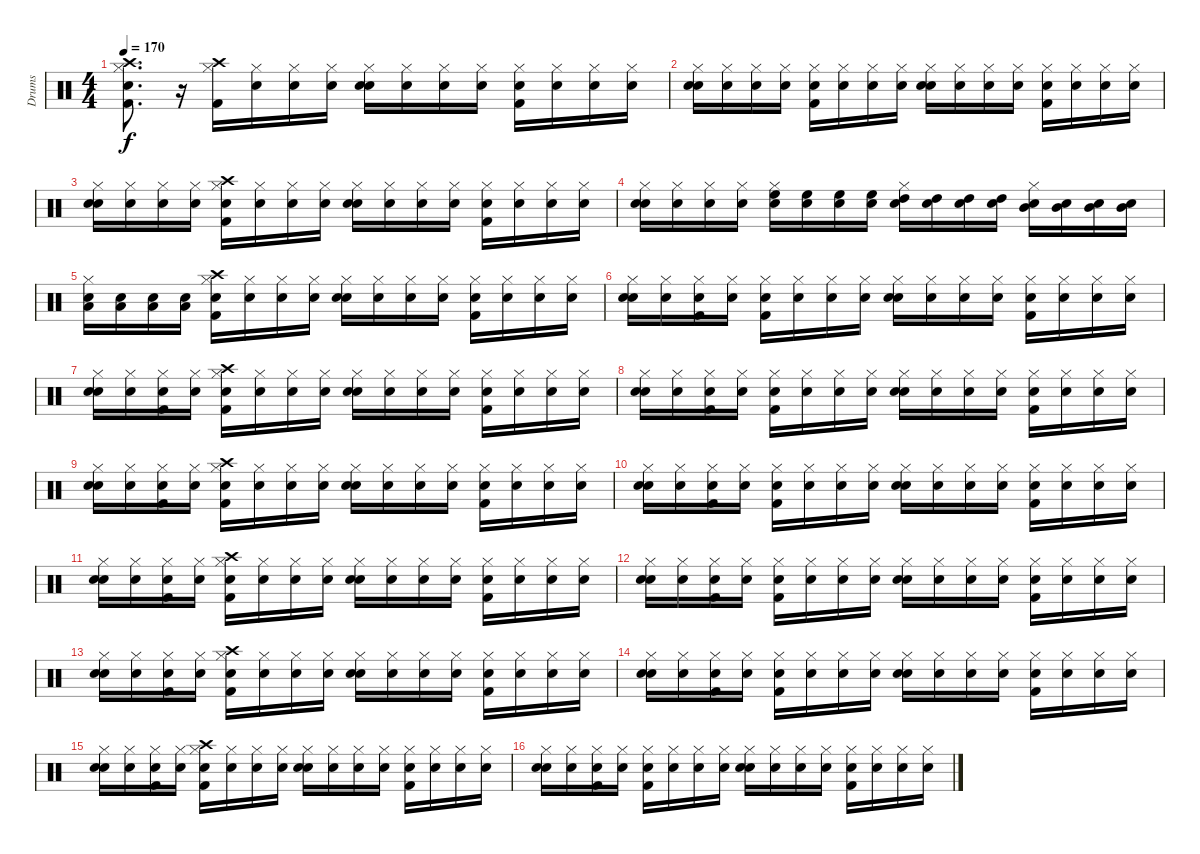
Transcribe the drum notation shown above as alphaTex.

\track ("Drums" "Drums") {instrument percussion}
\staff {score}
\articulation defaults
\ts (4 4)
\tempo 170
\clef neutral
\ks c
("Snare (hit)" "Kick (hit) 2" "Hi-Hat (closed)" "Crash high (hit)").8{d dy f} r.16 ("Kick (hit) 2" "Hi-Hat (closed)" "Crash high (hit)").16 ("Snare (hit)" "Hi-Hat (closed)").16 ("Snare (hit)" "Hi-Hat (closed)").16 ("Snare (hit)" "Hi-Hat (closed)").16 ("Snare (hit)" "Snare (hit) 2" "Hi-Hat (closed)").16 ("Snare (hit)" "Hi-Hat (closed)").16 ("Snare (hit)" "Hi-Hat (closed)").16 ("Snare (hit)" "Hi-Hat (closed)").16 ("Snare (hit)" "Kick (hit) 2" "Hi-Hat (closed)").16 ("Snare (hit)" "Hi-Hat (closed)").16 ("Snare (hit)" "Hi-Hat (closed)").16 ("Snare (hit)" "Hi-Hat (closed)").16 |
("Snare (hit)" "Snare (hit) 2" "Hi-Hat (closed)").16 ("Snare (hit)" "Hi-Hat (closed)").16 ("Snare (hit)" "Hi-Hat (closed)").16 ("Snare (hit)" "Hi-Hat (closed)").16 ("Snare (hit)" "Kick (hit) 2" "Hi-Hat (closed)").16 ("Snare (hit)" "Hi-Hat (closed)").16 ("Snare (hit)" "Hi-Hat (closed)").16 ("Snare (hit)" "Hi-Hat (closed)").16 ("Snare (hit)" "Snare (hit) 2" "Hi-Hat (closed)").16 ("Snare (hit)" "Hi-Hat (closed)").16 ("Snare (hit)" "Hi-Hat (closed)").16 ("Snare (hit)" "Hi-Hat (closed)").16 ("Snare (hit)" "Kick (hit) 2" "Hi-Hat (closed)").16 ("Snare (hit)" "Hi-Hat (closed)").16 ("Snare (hit)" "Hi-Hat (closed)").16 ("Snare (hit)" "Hi-Hat (closed)").16 |
("Snare (hit)" "Snare (hit) 2" "Hi-Hat (closed)").16 ("Snare (hit)" "Hi-Hat (closed)").16 ("Snare (hit)" "Hi-Hat (closed)").16 ("Snare (hit)" "Hi-Hat (closed)").16 ("Snare (hit)" "Kick (hit) 2" "Hi-Hat (closed)" "Crash high (hit)").16 ("Snare (hit)" "Hi-Hat (closed)").16 ("Snare (hit)" "Hi-Hat (closed)").16 ("Snare (hit)" "Hi-Hat (closed)").16 ("Snare (hit)" "Snare (hit) 2" "Hi-Hat (closed)").16 ("Snare (hit)" "Hi-Hat (closed)").16 ("Snare (hit)" "Hi-Hat (closed)").16 ("Snare (hit)" "Hi-Hat (closed)").16 ("Snare (hit)" "Kick (hit) 2" "Hi-Hat (closed)").16 ("Snare (hit)" "Hi-Hat (closed)").16 ("Snare (hit)" "Hi-Hat (closed)").16 ("Snare (hit)" "Hi-Hat (closed)").16 |
("Snare (hit)" "Snare (hit) 2" "Hi-Hat (closed)").16 ("Snare (hit)" "Hi-Hat (closed)").16 ("Snare (hit)" "Hi-Hat (closed)").16 ("Snare (hit)" "Hi-Hat (closed)").16 ("Snare (hit)" "Hi-Hat (closed)" "High Floor Tom (hit)").16 ("Snare (hit)" "High Floor Tom (hit)").16 ("Snare (hit)" "High Floor Tom (hit)").16 ("Snare (hit)" "High Floor Tom (hit)").16 ("Snare (hit)" "Hi-Hat (closed)" "High Tom (hit)").16 ("Snare (hit)" "High Tom (hit)").16 ("Snare (hit)" "High Tom (hit)").16 ("Snare (hit)" "High Tom (hit)").16 ("Snare (hit)" "Hi-Hat (closed)" "Mid Tom (hit)").16 ("Snare (hit)" "Mid Tom (hit)").16 ("Snare (hit)" "Mid Tom (hit)").16 ("Snare (hit)" "Mid Tom (hit)").16 |
("Snare (hit)" "Hi-Hat (closed)" "Low Tom (hit)").16 ("Snare (hit)" "Low Tom (hit)").16 ("Snare (hit)" "Low Tom (hit)").16 ("Snare (hit)" "Low Tom (hit)").16 ("Snare (hit)" "Kick (hit) 2" "Hi-Hat (closed)" "Crash high (hit)").16 ("Snare (hit)" "Hi-Hat (closed)").16 ("Snare (hit)" "Hi-Hat (closed)").16 ("Snare (hit)" "Hi-Hat (closed)").16 ("Snare (hit)" "Snare (hit) 2" "Hi-Hat (closed)").16 ("Snare (hit)" "Hi-Hat (closed)").16 ("Snare (hit)" "Hi-Hat (closed)").16 ("Snare (hit)" "Hi-Hat (closed)").16 ("Snare (hit)" "Kick (hit) 2" "Hi-Hat (closed)").16 ("Snare (hit)" "Hi-Hat (closed)").16 ("Snare (hit)" "Hi-Hat (closed)").16 ("Snare (hit)" "Hi-Hat (closed)").16 |
("Snare (hit)" "Snare (hit) 2" "Hi-Hat (closed)").16 ("Snare (hit)" "Hi-Hat (closed)").16 ("Snare (hit)" "Kick (hit) 2" "Hi-Hat (closed)").16 ("Snare (hit)" "Hi-Hat (closed)").16 ("Snare (hit)" "Kick (hit) 2" "Hi-Hat (closed)").16 ("Snare (hit)" "Hi-Hat (closed)").16 ("Snare (hit)" "Hi-Hat (closed)").16 ("Snare (hit)" "Hi-Hat (closed)").16 ("Snare (hit)" "Snare (hit) 2" "Hi-Hat (closed)").16 ("Snare (hit)" "Hi-Hat (closed)").16 ("Snare (hit)" "Hi-Hat (closed)").16 ("Snare (hit)" "Hi-Hat (closed)").16 ("Snare (hit)" "Kick (hit) 2" "Hi-Hat (closed)").16 ("Snare (hit)" "Hi-Hat (closed)").16 ("Snare (hit)" "Hi-Hat (closed)").16 ("Snare (hit)" "Hi-Hat (closed)").16 |
("Snare (hit)" "Snare (hit) 2" "Hi-Hat (closed)").16 ("Snare (hit)" "Hi-Hat (closed)").16 ("Snare (hit)" "Kick (hit) 2" "Hi-Hat (closed)").16 ("Snare (hit)" "Hi-Hat (closed)").16 ("Snare (hit)" "Kick (hit) 2" "Hi-Hat (closed)" "Crash high (hit)").16 ("Snare (hit)" "Hi-Hat (closed)").16 ("Snare (hit)" "Hi-Hat (closed)").16 ("Snare (hit)" "Hi-Hat (closed)").16 ("Snare (hit)" "Snare (hit) 2" "Hi-Hat (closed)").16 ("Snare (hit)" "Hi-Hat (closed)").16 ("Snare (hit)" "Hi-Hat (closed)").16 ("Snare (hit)" "Hi-Hat (closed)").16 ("Snare (hit)" "Kick (hit) 2" "Hi-Hat (closed)").16 ("Snare (hit)" "Hi-Hat (closed)").16 ("Snare (hit)" "Hi-Hat (closed)").16 ("Snare (hit)" "Hi-Hat (closed)").16 |
("Snare (hit)" "Snare (hit) 2" "Hi-Hat (closed)").16 ("Snare (hit)" "Hi-Hat (closed)").16 ("Snare (hit)" "Kick (hit) 2" "Hi-Hat (closed)").16 ("Snare (hit)" "Hi-Hat (closed)").16 ("Snare (hit)" "Kick (hit) 2" "Hi-Hat (closed)").16 ("Snare (hit)" "Hi-Hat (closed)").16 ("Snare (hit)" "Hi-Hat (closed)").16 ("Snare (hit)" "Hi-Hat (closed)").16 ("Snare (hit)" "Snare (hit) 2" "Hi-Hat (closed)").16 ("Snare (hit)" "Hi-Hat (closed)").16 ("Snare (hit)" "Hi-Hat (closed)").16 ("Snare (hit)" "Hi-Hat (closed)").16 ("Snare (hit)" "Kick (hit) 2" "Hi-Hat (closed)").16 ("Snare (hit)" "Hi-Hat (closed)").16 ("Snare (hit)" "Hi-Hat (closed)").16 ("Snare (hit)" "Hi-Hat (closed)").16 |
("Snare (hit)" "Snare (hit) 2" "Hi-Hat (closed)").16 ("Snare (hit)" "Hi-Hat (closed)").16 ("Snare (hit)" "Kick (hit) 2" "Hi-Hat (closed)").16 ("Snare (hit)" "Hi-Hat (closed)").16 ("Snare (hit)" "Kick (hit) 2" "Hi-Hat (closed)" "Crash high (hit)").16 ("Snare (hit)" "Hi-Hat (closed)").16 ("Snare (hit)" "Hi-Hat (closed)").16 ("Snare (hit)" "Hi-Hat (closed)").16 ("Snare (hit)" "Snare (hit) 2" "Hi-Hat (closed)").16 ("Snare (hit)" "Hi-Hat (closed)").16 ("Snare (hit)" "Hi-Hat (closed)").16 ("Snare (hit)" "Hi-Hat (closed)").16 ("Snare (hit)" "Kick (hit) 2" "Hi-Hat (closed)").16 ("Snare (hit)" "Hi-Hat (closed)").16 ("Snare (hit)" "Hi-Hat (closed)").16 ("Snare (hit)" "Hi-Hat (closed)").16 |
("Snare (hit)" "Snare (hit) 2" "Hi-Hat (closed)").16 ("Snare (hit)" "Hi-Hat (closed)").16 ("Snare (hit)" "Kick (hit) 2" "Hi-Hat (closed)").16 ("Snare (hit)" "Hi-Hat (closed)").16 ("Snare (hit)" "Kick (hit) 2" "Hi-Hat (closed)").16 ("Snare (hit)" "Hi-Hat (closed)").16 ("Snare (hit)" "Hi-Hat (closed)").16 ("Snare (hit)" "Hi-Hat (closed)").16 ("Snare (hit)" "Snare (hit) 2" "Hi-Hat (closed)").16 ("Snare (hit)" "Hi-Hat (closed)").16 ("Snare (hit)" "Hi-Hat (closed)").16 ("Snare (hit)" "Hi-Hat (closed)").16 ("Snare (hit)" "Kick (hit) 2" "Hi-Hat (closed)").16 ("Snare (hit)" "Hi-Hat (closed)").16 ("Snare (hit)" "Hi-Hat (closed)").16 ("Snare (hit)" "Hi-Hat (closed)").16 |
("Snare (hit)" "Snare (hit) 2" "Hi-Hat (closed)").16 ("Snare (hit)" "Hi-Hat (closed)").16 ("Snare (hit)" "Kick (hit) 2" "Hi-Hat (closed)").16 ("Snare (hit)" "Hi-Hat (closed)").16 ("Snare (hit)" "Kick (hit) 2" "Hi-Hat (closed)" "Crash high (hit)").16 ("Snare (hit)" "Hi-Hat (closed)").16 ("Snare (hit)" "Hi-Hat (closed)").16 ("Snare (hit)" "Hi-Hat (closed)").16 ("Snare (hit)" "Snare (hit) 2" "Hi-Hat (closed)").16 ("Snare (hit)" "Hi-Hat (closed)").16 ("Snare (hit)" "Hi-Hat (closed)").16 ("Snare (hit)" "Hi-Hat (closed)").16 ("Snare (hit)" "Kick (hit) 2" "Hi-Hat (closed)").16 ("Snare (hit)" "Hi-Hat (closed)").16 ("Snare (hit)" "Hi-Hat (closed)").16 ("Snare (hit)" "Hi-Hat (closed)").16 |
("Snare (hit)" "Snare (hit) 2" "Hi-Hat (closed)").16 ("Snare (hit)" "Hi-Hat (closed)").16 ("Snare (hit)" "Kick (hit) 2" "Hi-Hat (closed)").16 ("Snare (hit)" "Hi-Hat (closed)").16 ("Snare (hit)" "Kick (hit) 2" "Hi-Hat (closed)").16 ("Snare (hit)" "Hi-Hat (closed)").16 ("Snare (hit)" "Hi-Hat (closed)").16 ("Snare (hit)" "Hi-Hat (closed)").16 ("Snare (hit)" "Snare (hit) 2" "Hi-Hat (closed)").16 ("Snare (hit)" "Hi-Hat (closed)").16 ("Snare (hit)" "Hi-Hat (closed)").16 ("Snare (hit)" "Hi-Hat (closed)").16 ("Snare (hit)" "Kick (hit) 2" "Hi-Hat (closed)").16 ("Snare (hit)" "Hi-Hat (closed)").16 ("Snare (hit)" "Hi-Hat (closed)").16 ("Snare (hit)" "Hi-Hat (closed)").16 |
("Snare (hit)" "Snare (hit) 2" "Hi-Hat (closed)").16 ("Snare (hit)" "Hi-Hat (closed)").16 ("Snare (hit)" "Kick (hit) 2" "Hi-Hat (closed)").16 ("Snare (hit)" "Hi-Hat (closed)").16 ("Snare (hit)" "Kick (hit) 2" "Hi-Hat (closed)" "Crash high (hit)").16 ("Snare (hit)" "Hi-Hat (closed)").16 ("Snare (hit)" "Hi-Hat (closed)").16 ("Snare (hit)" "Hi-Hat (closed)").16 ("Snare (hit)" "Snare (hit) 2" "Hi-Hat (closed)").16 ("Snare (hit)" "Hi-Hat (closed)").16 ("Snare (hit)" "Hi-Hat (closed)").16 ("Snare (hit)" "Hi-Hat (closed)").16 ("Snare (hit)" "Kick (hit) 2" "Hi-Hat (closed)").16 ("Snare (hit)" "Hi-Hat (closed)").16 ("Snare (hit)" "Hi-Hat (closed)").16 ("Snare (hit)" "Hi-Hat (closed)").16 |
("Snare (hit)" "Snare (hit) 2" "Hi-Hat (closed)").16 ("Snare (hit)" "Hi-Hat (closed)").16 ("Snare (hit)" "Kick (hit) 2" "Hi-Hat (closed)").16 ("Snare (hit)" "Hi-Hat (closed)").16 ("Snare (hit)" "Kick (hit) 2" "Hi-Hat (closed)").16 ("Snare (hit)" "Hi-Hat (closed)").16 ("Snare (hit)" "Hi-Hat (closed)").16 ("Snare (hit)" "Hi-Hat (closed)").16 ("Snare (hit)" "Snare (hit) 2" "Hi-Hat (closed)").16 ("Snare (hit)" "Hi-Hat (closed)").16 ("Snare (hit)" "Hi-Hat (closed)").16 ("Snare (hit)" "Hi-Hat (closed)").16 ("Snare (hit)" "Kick (hit) 2" "Hi-Hat (closed)").16 ("Snare (hit)" "Hi-Hat (closed)").16 ("Snare (hit)" "Hi-Hat (closed)").16 ("Snare (hit)" "Hi-Hat (closed)").16 |
("Snare (hit)" "Snare (hit) 2" "Hi-Hat (closed)").16 ("Snare (hit)" "Hi-Hat (closed)").16 ("Snare (hit)" "Kick (hit) 2" "Hi-Hat (closed)").16 ("Snare (hit)" "Hi-Hat (closed)").16 ("Snare (hit)" "Kick (hit) 2" "Hi-Hat (closed)" "Crash high (hit)").16 ("Snare (hit)" "Hi-Hat (closed)").16 ("Snare (hit)" "Hi-Hat (closed)").16 ("Snare (hit)" "Hi-Hat (closed)").16 ("Snare (hit)" "Snare (hit) 2" "Hi-Hat (closed)").16 ("Snare (hit)" "Hi-Hat (closed)").16 ("Snare (hit)" "Hi-Hat (closed)").16 ("Snare (hit)" "Hi-Hat (closed)").16 ("Snare (hit)" "Kick (hit) 2" "Hi-Hat (closed)").16 ("Snare (hit)" "Hi-Hat (closed)").16 ("Snare (hit)" "Hi-Hat (closed)").16 ("Snare (hit)" "Hi-Hat (closed)").16 |
("Snare (hit)" "Snare (hit) 2" "Hi-Hat (closed)").16 ("Snare (hit)" "Hi-Hat (closed)").16 ("Snare (hit)" "Kick (hit) 2" "Hi-Hat (closed)").16 ("Snare (hit)" "Hi-Hat (closed)").16 ("Snare (hit)" "Kick (hit) 2" "Hi-Hat (closed)").16 ("Snare (hit)" "Hi-Hat (closed)").16 ("Snare (hit)" "Hi-Hat (closed)").16 ("Snare (hit)" "Hi-Hat (closed)").16 ("Snare (hit)" "Snare (hit) 2" "Hi-Hat (closed)").16 ("Snare (hit)" "Hi-Hat (closed)").16 ("Snare (hit)" "Hi-Hat (closed)").16 ("Snare (hit)" "Hi-Hat (closed)").16 ("Snare (hit)" "Kick (hit) 2" "Hi-Hat (closed)").16 ("Snare (hit)" "Hi-Hat (closed)").16 ("Snare (hit)" "Hi-Hat (closed)").16 ("Snare (hit)" "Hi-Hat (closed)").16
